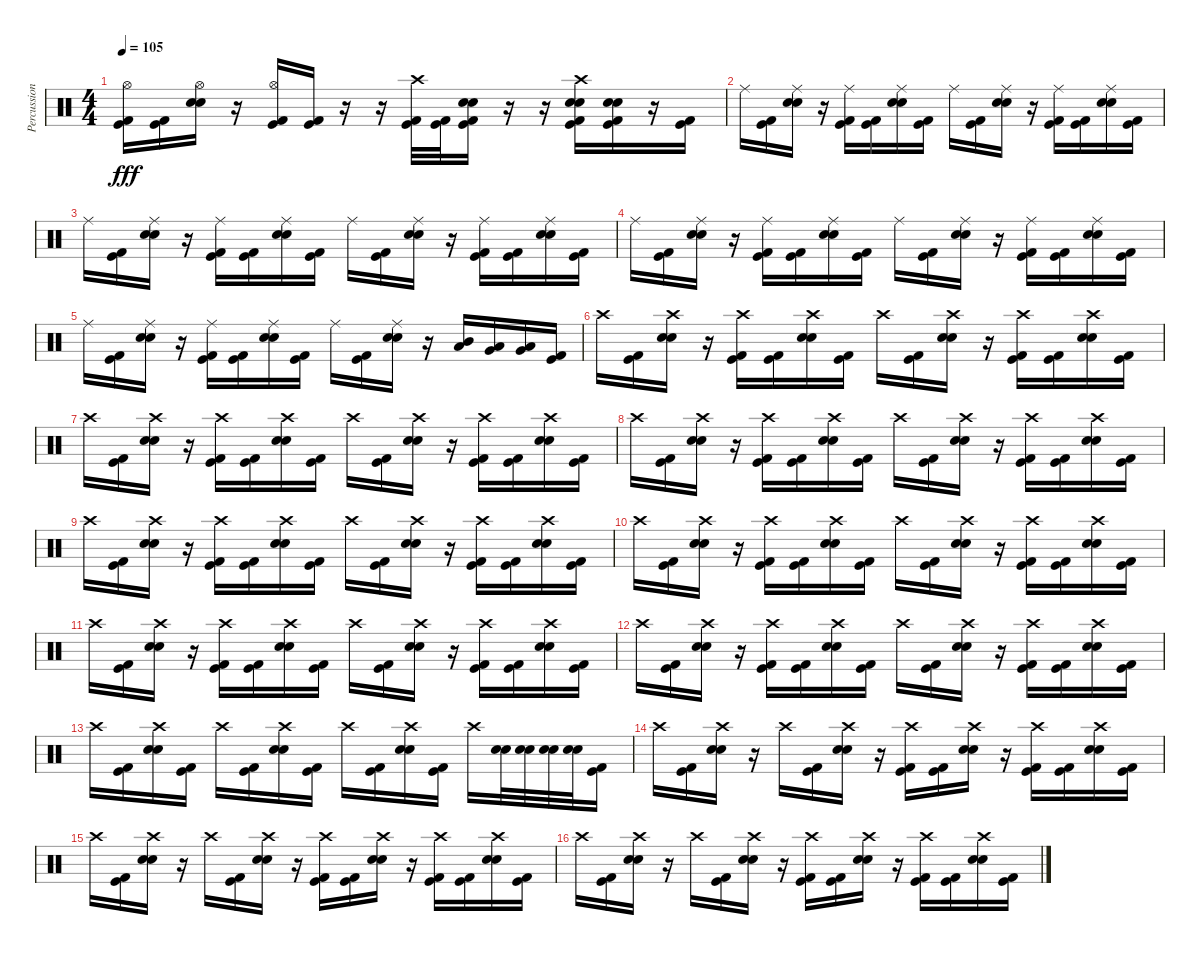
\track ("Percussion" "Percussion") {instrument percussion}
\staff {score}
\articulation defaults
\ts (4 4)
\tempo 105
\clef neutral
\ks c
("Kick (hit)" "Hi-Hat (open)" "Kick (hit) 2").16{dy fff} ("Kick (hit)" "Kick (hit) 2").16 ("Snare (hit) 2" "Hi-Hat (open)" "Electric Snare (hit)").16 r.16 ("Kick (hit)" "Hi-Hat (open)" "Kick (hit) 2").16 ("Kick (hit)" "Kick (hit) 2").16 r.16 r.16 ("Kick (hit)" "Crash high (hit)" "Kick (hit) 2").32 ("Kick (hit)" "Kick (hit) 2").32 ("Kick (hit)" "Snare (hit) 2" "Electric Snare (hit)" "Kick (hit) 2").16 r.16 r.16 ("Kick (hit)" "Crash high (hit)" "Snare (hit) 2" "Electric Snare (hit)" "Kick (hit) 2").16 ("Kick (hit)" "Snare (hit) 2" "Electric Snare (hit)" "Kick (hit) 2").16 r.16 ("Kick (hit)" "Kick (hit) 2").16 |
"Ride (middle)".16 ("Kick (hit)" "Kick (hit) 2").16 ("Snare (hit) 2" "Ride (middle)" "Electric Snare (hit)").16 r.16 ("Kick (hit)" "Ride (middle)" "Kick (hit) 2").16 ("Kick (hit)" "Kick (hit) 2").16 ("Snare (hit) 2" "Ride (middle)" "Electric Snare (hit)").16 ("Kick (hit)" "Kick (hit) 2").16 "Ride (middle)".16 ("Kick (hit)" "Kick (hit) 2").16 ("Snare (hit) 2" "Ride (middle)" "Electric Snare (hit)").16 r.16 ("Kick (hit)" "Ride (middle)" "Kick (hit) 2").16 ("Kick (hit)" "Kick (hit) 2").16 ("Snare (hit) 2" "Ride (middle)" "Electric Snare (hit)").16 ("Kick (hit)" "Kick (hit) 2").16 |
"Ride (middle)".16 ("Kick (hit)" "Kick (hit) 2").16 ("Snare (hit) 2" "Ride (middle)" "Electric Snare (hit)").16 r.16 ("Kick (hit)" "Ride (middle)" "Kick (hit) 2").16 ("Kick (hit)" "Kick (hit) 2").16 ("Snare (hit) 2" "Ride (middle)" "Electric Snare (hit)").16 ("Kick (hit)" "Kick (hit) 2").16 "Ride (middle)".16 ("Kick (hit)" "Kick (hit) 2").16 ("Snare (hit) 2" "Ride (middle)" "Electric Snare (hit)").16 r.16 ("Kick (hit)" "Ride (middle)" "Kick (hit) 2").16 ("Kick (hit)" "Kick (hit) 2").16 ("Snare (hit) 2" "Ride (middle)" "Electric Snare (hit)").16 ("Kick (hit)" "Kick (hit) 2").16 |
"Ride (middle)".16 ("Kick (hit)" "Kick (hit) 2").16 ("Snare (hit) 2" "Ride (middle)" "Electric Snare (hit)").16 r.16 ("Kick (hit)" "Ride (middle)" "Kick (hit) 2").16 ("Kick (hit)" "Kick (hit) 2").16 ("Snare (hit) 2" "Ride (middle)" "Electric Snare (hit)").16 ("Kick (hit)" "Kick (hit) 2").16 "Ride (middle)".16 ("Kick (hit)" "Kick (hit) 2").16 ("Snare (hit) 2" "Ride (middle)" "Electric Snare (hit)").16 r.16 ("Kick (hit)" "Ride (middle)" "Kick (hit) 2").16 ("Kick (hit)" "Kick (hit) 2").16 ("Snare (hit) 2" "Ride (middle)" "Electric Snare (hit)").16 ("Kick (hit)" "Kick (hit) 2").16 |
"Ride (middle)".16 ("Kick (hit)" "Kick (hit) 2").16 ("Snare (hit) 2" "Ride (middle)" "Electric Snare (hit)").16 r.16 ("Kick (hit)" "Ride (middle)" "Kick (hit) 2").16 ("Kick (hit)" "Kick (hit) 2").16 ("Snare (hit) 2" "Ride (middle)" "Electric Snare (hit)").16 ("Kick (hit)" "Kick (hit) 2").16 "Ride (middle)".16 ("Kick (hit)" "Kick (hit) 2").16 ("Snare (hit) 2" "Ride (middle)" "Electric Snare (hit)").16 r.16 ("Mid Tom (hit)" "Low Tom (hit)").16 ("Low Tom (hit)" "Very Low Tom (hit)").16 ("Very Low Tom (hit)" "Low Floor Tom (hit)").16 ("Kick (hit)" "Kick (hit) 2").16 |
"Crash high (hit)".16 ("Kick (hit)" "Kick (hit) 2").16 ("Snare (hit) 2" "Crash high (hit)" "Electric Snare (hit)").16 r.16 ("Kick (hit)" "Crash high (hit)" "Kick (hit) 2").16 ("Kick (hit)" "Kick (hit) 2").16 ("Snare (hit) 2" "Crash high (hit)" "Electric Snare (hit)").16 ("Kick (hit)" "Kick (hit) 2").16 "Crash high (hit)".16 ("Kick (hit)" "Kick (hit) 2").16 ("Snare (hit) 2" "Crash high (hit)" "Electric Snare (hit)").16 r.16 ("Kick (hit)" "Crash high (hit)" "Kick (hit) 2").16 ("Kick (hit)" "Kick (hit) 2").16 ("Snare (hit) 2" "Crash high (hit)" "Electric Snare (hit)").16 ("Kick (hit)" "Kick (hit) 2").16 |
"Crash high (hit)".16 ("Kick (hit)" "Kick (hit) 2").16 ("Snare (hit) 2" "Crash high (hit)" "Electric Snare (hit)").16 r.16 ("Kick (hit)" "Crash high (hit)" "Kick (hit) 2").16 ("Kick (hit)" "Kick (hit) 2").16 ("Snare (hit) 2" "Crash high (hit)" "Electric Snare (hit)").16 ("Kick (hit)" "Kick (hit) 2").16 "Crash high (hit)".16 ("Kick (hit)" "Kick (hit) 2").16 ("Snare (hit) 2" "Crash high (hit)" "Electric Snare (hit)").16 r.16 ("Kick (hit)" "Crash high (hit)" "Kick (hit) 2").16 ("Kick (hit)" "Kick (hit) 2").16 ("Snare (hit) 2" "Crash high (hit)" "Electric Snare (hit)").16 ("Kick (hit)" "Kick (hit) 2").16 |
"Crash high (hit)".16 ("Kick (hit)" "Kick (hit) 2").16 ("Snare (hit) 2" "Crash high (hit)" "Electric Snare (hit)").16 r.16 ("Kick (hit)" "Crash high (hit)" "Kick (hit) 2").16 ("Kick (hit)" "Kick (hit) 2").16 ("Snare (hit) 2" "Crash high (hit)" "Electric Snare (hit)").16 ("Kick (hit)" "Kick (hit) 2").16 "Crash high (hit)".16 ("Kick (hit)" "Kick (hit) 2").16 ("Snare (hit) 2" "Crash high (hit)" "Electric Snare (hit)").16 r.16 ("Kick (hit)" "Crash high (hit)" "Kick (hit) 2").16 ("Kick (hit)" "Kick (hit) 2").16 ("Snare (hit) 2" "Crash high (hit)" "Electric Snare (hit)").16 ("Kick (hit)" "Kick (hit) 2").16 |
"Crash high (hit)".16 ("Kick (hit)" "Kick (hit) 2").16 ("Snare (hit) 2" "Crash high (hit)" "Electric Snare (hit)").16 r.16 ("Kick (hit)" "Crash high (hit)" "Kick (hit) 2").16 ("Kick (hit)" "Kick (hit) 2").16 ("Snare (hit) 2" "Crash high (hit)" "Electric Snare (hit)").16 ("Kick (hit)" "Kick (hit) 2").16 "Crash high (hit)".16 ("Kick (hit)" "Kick (hit) 2").16 ("Snare (hit) 2" "Crash high (hit)" "Electric Snare (hit)").16 r.16 ("Kick (hit)" "Crash high (hit)" "Kick (hit) 2").16 ("Kick (hit)" "Kick (hit) 2").16 ("Snare (hit) 2" "Crash high (hit)" "Electric Snare (hit)").16 ("Kick (hit)" "Kick (hit) 2").16 |
"Crash high (hit)".16 ("Kick (hit)" "Kick (hit) 2").16 ("Snare (hit) 2" "Crash high (hit)" "Electric Snare (hit)").16 r.16 ("Kick (hit)" "Crash high (hit)" "Kick (hit) 2").16 ("Kick (hit)" "Kick (hit) 2").16 ("Snare (hit) 2" "Crash high (hit)" "Electric Snare (hit)").16 ("Kick (hit)" "Kick (hit) 2").16 "Crash high (hit)".16 ("Kick (hit)" "Kick (hit) 2").16 ("Snare (hit) 2" "Crash high (hit)" "Electric Snare (hit)").16 r.16 ("Kick (hit)" "Crash high (hit)" "Kick (hit) 2").16 ("Kick (hit)" "Kick (hit) 2").16 ("Snare (hit) 2" "Crash high (hit)" "Electric Snare (hit)").16 ("Kick (hit)" "Kick (hit) 2").16 |
"Crash high (hit)".16 ("Kick (hit)" "Kick (hit) 2").16 ("Snare (hit) 2" "Crash high (hit)" "Electric Snare (hit)").16 r.16 ("Kick (hit)" "Crash high (hit)" "Kick (hit) 2").16 ("Kick (hit)" "Kick (hit) 2").16 ("Snare (hit) 2" "Crash high (hit)" "Electric Snare (hit)").16 ("Kick (hit)" "Kick (hit) 2").16 "Crash high (hit)".16 ("Kick (hit)" "Kick (hit) 2").16 ("Snare (hit) 2" "Crash high (hit)" "Electric Snare (hit)").16 r.16 ("Kick (hit)" "Crash high (hit)" "Kick (hit) 2").16 ("Kick (hit)" "Kick (hit) 2").16 ("Snare (hit) 2" "Crash high (hit)" "Electric Snare (hit)").16 ("Kick (hit)" "Kick (hit) 2").16 |
"Crash high (hit)".16 ("Kick (hit)" "Kick (hit) 2").16 ("Snare (hit) 2" "Crash high (hit)" "Electric Snare (hit)").16 r.16 ("Kick (hit)" "Crash high (hit)" "Kick (hit) 2").16 ("Kick (hit)" "Kick (hit) 2").16 ("Snare (hit) 2" "Crash high (hit)" "Electric Snare (hit)").16 ("Kick (hit)" "Kick (hit) 2").16 "Crash high (hit)".16 ("Kick (hit)" "Kick (hit) 2").16 ("Snare (hit) 2" "Crash high (hit)" "Electric Snare (hit)").16 r.16 ("Kick (hit)" "Crash high (hit)" "Kick (hit) 2").16 ("Kick (hit)" "Kick (hit) 2").16 ("Snare (hit) 2" "Crash high (hit)" "Electric Snare (hit)").16 ("Kick (hit)" "Kick (hit) 2").16 |
"Crash high (hit)".16 ("Kick (hit)" "Kick (hit) 2").16 ("Snare (hit) 2" "Crash high (hit)" "Electric Snare (hit)").16 ("Kick (hit)" "Kick (hit) 2").16 "Crash high (hit)".16 ("Kick (hit)" "Kick (hit) 2").16 ("Snare (hit) 2" "Crash high (hit)" "Electric Snare (hit)").16 ("Kick (hit)" "Kick (hit) 2").16 "Crash high (hit)".16 ("Kick (hit)" "Kick (hit) 2").16 ("Snare (hit) 2" "Crash high (hit)" "Electric Snare (hit)").16 ("Kick (hit)" "Kick (hit) 2").16 "Crash high (hit)".16 ("Snare (hit) 2" "Electric Snare (hit)").32 ("Snare (hit) 2" "Electric Snare (hit)").32 ("Snare (hit) 2" "Electric Snare (hit)").32 ("Snare (hit) 2" "Electric Snare (hit)").32 ("Kick (hit)" "Kick (hit) 2").16 |
"Crash high (hit)".16 ("Kick (hit)" "Kick (hit) 2").16 ("Crash high (hit)" "Snare (hit) 2" "Electric Snare (hit)").16 r.16 "Crash high (hit)".16 ("Kick (hit)" "Kick (hit) 2").16 ("Crash high (hit)" "Snare (hit) 2" "Electric Snare (hit)").16 r.16 ("Kick (hit)" "Crash high (hit)" "Kick (hit) 2").16 ("Kick (hit)" "Kick (hit) 2").16 ("Crash high (hit)" "Snare (hit) 2" "Electric Snare (hit)").16 r.16 ("Kick (hit)" "Crash high (hit)" "Kick (hit) 2").16 ("Kick (hit)" "Kick (hit) 2").16 ("Crash high (hit)" "Snare (hit) 2" "Electric Snare (hit)").16 ("Kick (hit)" "Kick (hit) 2").16 |
"Crash high (hit)".16 ("Kick (hit)" "Kick (hit) 2").16 ("Crash high (hit)" "Snare (hit) 2" "Electric Snare (hit)").16 r.16 "Crash high (hit)".16 ("Kick (hit)" "Kick (hit) 2").16 ("Crash high (hit)" "Snare (hit) 2" "Electric Snare (hit)").16 r.16 ("Kick (hit)" "Crash high (hit)" "Kick (hit) 2").16 ("Kick (hit)" "Kick (hit) 2").16 ("Crash high (hit)" "Snare (hit) 2" "Electric Snare (hit)").16 r.16 ("Kick (hit)" "Crash high (hit)" "Kick (hit) 2").16 ("Kick (hit)" "Kick (hit) 2").16 ("Crash high (hit)" "Snare (hit) 2" "Electric Snare (hit)").16 ("Kick (hit)" "Kick (hit) 2").16 |
"Crash high (hit)".16 ("Kick (hit)" "Kick (hit) 2").16 ("Crash high (hit)" "Snare (hit) 2" "Electric Snare (hit)").16 r.16 "Crash high (hit)".16 ("Kick (hit)" "Kick (hit) 2").16 ("Crash high (hit)" "Snare (hit) 2" "Electric Snare (hit)").16 r.16 ("Kick (hit)" "Crash high (hit)" "Kick (hit) 2").16 ("Kick (hit)" "Kick (hit) 2").16 ("Crash high (hit)" "Snare (hit) 2" "Electric Snare (hit)").16 r.16 ("Kick (hit)" "Crash high (hit)" "Kick (hit) 2").16 ("Kick (hit)" "Kick (hit) 2").16 ("Crash high (hit)" "Snare (hit) 2" "Electric Snare (hit)").16 ("Kick (hit)" "Kick (hit) 2").16
